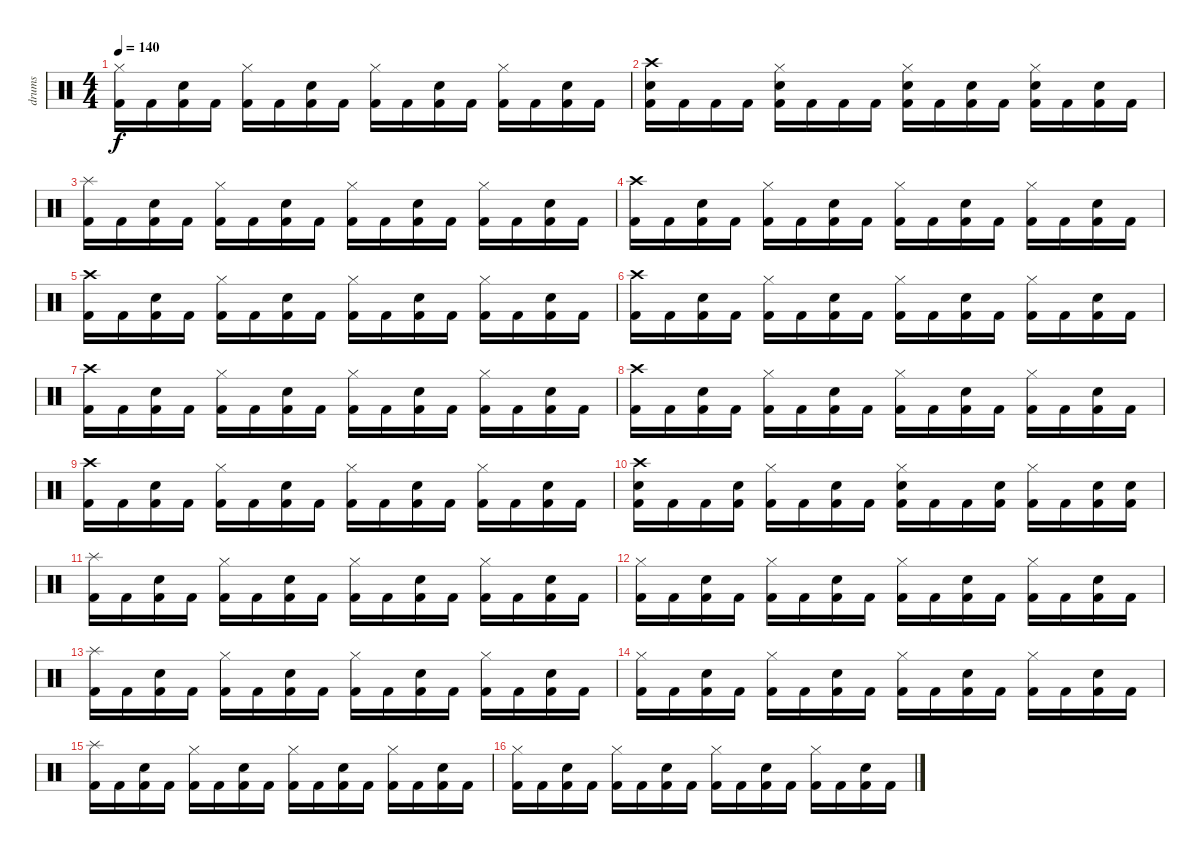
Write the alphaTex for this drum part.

\track ("drums" "drums") {instrument percussion}
\staff {score}
\articulation defaults
\ts (4 4)
\tempo 140
\clef neutral
\ks c
("Hi-Hat (closed)" "Kick (hit) 2").16{dy f} "Kick (hit) 2".16 ("Electric Snare (hit)" "Kick (hit) 2").16 "Kick (hit) 2".16 ("Hi-Hat (closed)" "Kick (hit) 2").16 "Kick (hit) 2".16 ("Electric Snare (hit)" "Kick (hit) 2").16 "Kick (hit) 2".16 ("Hi-Hat (closed)" "Kick (hit) 2").16 "Kick (hit) 2".16 ("Electric Snare (hit)" "Kick (hit) 2").16 "Kick (hit) 2".16 ("Hi-Hat (closed)" "Kick (hit) 2").16 "Kick (hit) 2".16 ("Electric Snare (hit)" "Kick (hit) 2").16 "Kick (hit) 2".16 |
("Crash high (hit)" "Electric Snare (hit)" "Kick (hit) 2").16 "Kick (hit) 2".16 "Kick (hit) 2".16 "Kick (hit) 2".16 ("Hi-Hat (closed)" "Electric Snare (hit)" "Kick (hit) 2").16 "Kick (hit) 2".16 "Kick (hit) 2".16 "Kick (hit) 2".16 ("Hi-Hat (closed)" "Electric Snare (hit)" "Kick (hit) 2").16 "Kick (hit) 2".16 ("Electric Snare (hit)" "Kick (hit) 2").16 "Kick (hit) 2".16 ("Hi-Hat (closed)" "Electric Snare (hit)" "Kick (hit) 2").16 "Kick (hit) 2".16 ("Electric Snare (hit)" "Kick (hit) 2").16 "Kick (hit) 2".16 |
("Splash (hit)" "Kick (hit) 2").16 "Kick (hit) 2".16 ("Electric Snare (hit)" "Kick (hit) 2").16 "Kick (hit) 2".16 ("Hi-Hat (closed)" "Kick (hit) 2").16 "Kick (hit) 2".16 ("Electric Snare (hit)" "Kick (hit) 2").16 "Kick (hit) 2".16 ("Hi-Hat (closed)" "Kick (hit) 2").16 "Kick (hit) 2".16 ("Electric Snare (hit)" "Kick (hit) 2").16 "Kick (hit) 2".16 ("Hi-Hat (closed)" "Kick (hit) 2").16 "Kick (hit) 2".16 ("Electric Snare (hit)" "Kick (hit) 2").16 "Kick (hit) 2".16 |
("Crash high (hit)" "Kick (hit) 2").16 "Kick (hit) 2".16 ("Electric Snare (hit)" "Kick (hit) 2").16 "Kick (hit) 2".16 ("Hi-Hat (closed)" "Kick (hit) 2").16 "Kick (hit) 2".16 ("Electric Snare (hit)" "Kick (hit) 2").16 "Kick (hit) 2".16 ("Hi-Hat (closed)" "Kick (hit) 2").16 "Kick (hit) 2".16 ("Electric Snare (hit)" "Kick (hit) 2").16 "Kick (hit) 2".16 ("Hi-Hat (closed)" "Kick (hit) 2").16 "Kick (hit) 2".16 ("Electric Snare (hit)" "Kick (hit) 2").16 "Kick (hit) 2".16 |
("Crash high (hit)" "Kick (hit) 2").16 "Kick (hit) 2".16 ("Electric Snare (hit)" "Kick (hit) 2").16 "Kick (hit) 2".16 ("Hi-Hat (closed)" "Kick (hit) 2").16 "Kick (hit) 2".16 ("Electric Snare (hit)" "Kick (hit) 2").16 "Kick (hit) 2".16 ("Hi-Hat (closed)" "Kick (hit) 2").16 "Kick (hit) 2".16 ("Electric Snare (hit)" "Kick (hit) 2").16 "Kick (hit) 2".16 ("Hi-Hat (closed)" "Kick (hit) 2").16 "Kick (hit) 2".16 ("Electric Snare (hit)" "Kick (hit) 2").16 "Kick (hit) 2".16 |
("Crash high (hit)" "Kick (hit) 2").16 "Kick (hit) 2".16 ("Electric Snare (hit)" "Kick (hit) 2").16 "Kick (hit) 2".16 ("Hi-Hat (closed)" "Kick (hit) 2").16 "Kick (hit) 2".16 ("Electric Snare (hit)" "Kick (hit) 2").16 "Kick (hit) 2".16 ("Hi-Hat (closed)" "Kick (hit) 2").16 "Kick (hit) 2".16 ("Electric Snare (hit)" "Kick (hit) 2").16 "Kick (hit) 2".16 ("Hi-Hat (closed)" "Kick (hit) 2").16 "Kick (hit) 2".16 ("Electric Snare (hit)" "Kick (hit) 2").16 "Kick (hit) 2".16 |
("Crash high (hit)" "Kick (hit) 2").16 "Kick (hit) 2".16 ("Electric Snare (hit)" "Kick (hit) 2").16 "Kick (hit) 2".16 ("Hi-Hat (closed)" "Kick (hit) 2").16 "Kick (hit) 2".16 ("Electric Snare (hit)" "Kick (hit) 2").16 "Kick (hit) 2".16 ("Hi-Hat (closed)" "Kick (hit) 2").16 "Kick (hit) 2".16 ("Electric Snare (hit)" "Kick (hit) 2").16 "Kick (hit) 2".16 ("Hi-Hat (closed)" "Kick (hit) 2").16 "Kick (hit) 2".16 ("Electric Snare (hit)" "Kick (hit) 2").16 "Kick (hit) 2".16 |
("Crash high (hit)" "Kick (hit) 2").16 "Kick (hit) 2".16 ("Electric Snare (hit)" "Kick (hit) 2").16 "Kick (hit) 2".16 ("Hi-Hat (closed)" "Kick (hit) 2").16 "Kick (hit) 2".16 ("Electric Snare (hit)" "Kick (hit) 2").16 "Kick (hit) 2".16 ("Hi-Hat (closed)" "Kick (hit) 2").16 "Kick (hit) 2".16 ("Electric Snare (hit)" "Kick (hit) 2").16 "Kick (hit) 2".16 ("Hi-Hat (closed)" "Kick (hit) 2").16 "Kick (hit) 2".16 ("Electric Snare (hit)" "Kick (hit) 2").16 "Kick (hit) 2".16 |
("Crash high (hit)" "Kick (hit) 2").16 "Kick (hit) 2".16 ("Electric Snare (hit)" "Kick (hit) 2").16 "Kick (hit) 2".16 ("Hi-Hat (closed)" "Kick (hit) 2").16 "Kick (hit) 2".16 ("Electric Snare (hit)" "Kick (hit) 2").16 "Kick (hit) 2".16 ("Hi-Hat (closed)" "Kick (hit) 2").16 "Kick (hit) 2".16 ("Electric Snare (hit)" "Kick (hit) 2").16 "Kick (hit) 2".16 ("Hi-Hat (closed)" "Kick (hit) 2").16 "Kick (hit) 2".16 ("Electric Snare (hit)" "Kick (hit) 2").16 "Kick (hit) 2".16 |
("Crash high (hit)" "Electric Snare (hit)" "Kick (hit) 2").16 "Kick (hit) 2".16 "Kick (hit) 2".16 ("Electric Snare (hit)" "Kick (hit) 2").16 ("Hi-Hat (closed)" "Kick (hit) 2").16 "Kick (hit) 2".16 ("Electric Snare (hit)" "Kick (hit) 2").16 "Kick (hit) 2".16 ("Hi-Hat (closed)" "Electric Snare (hit)" "Kick (hit) 2").16 "Kick (hit) 2".16 "Kick (hit) 2".16 ("Electric Snare (hit)" "Kick (hit) 2").16 ("Hi-Hat (closed)" "Kick (hit) 2").16 "Kick (hit) 2".16 ("Electric Snare (hit)" "Kick (hit) 2").16 ("Electric Snare (hit)" "Kick (hit) 2").16 |
("Splash (hit)" "Kick (hit) 2").16 "Kick (hit) 2".16 ("Electric Snare (hit)" "Kick (hit) 2").16 "Kick (hit) 2".16 ("Hi-Hat (closed)" "Kick (hit) 2").16 "Kick (hit) 2".16 ("Electric Snare (hit)" "Kick (hit) 2").16 "Kick (hit) 2".16 ("Hi-Hat (closed)" "Kick (hit) 2").16 "Kick (hit) 2".16 ("Electric Snare (hit)" "Kick (hit) 2").16 "Kick (hit) 2".16 ("Hi-Hat (closed)" "Kick (hit) 2").16 "Kick (hit) 2".16 ("Electric Snare (hit)" "Kick (hit) 2").16 "Kick (hit) 2".16 |
("Hi-Hat (closed)" "Kick (hit) 2").16 "Kick (hit) 2".16 ("Electric Snare (hit)" "Kick (hit) 2").16 "Kick (hit) 2".16 ("Hi-Hat (closed)" "Kick (hit) 2").16 "Kick (hit) 2".16 ("Electric Snare (hit)" "Kick (hit) 2").16 "Kick (hit) 2".16 ("Hi-Hat (closed)" "Kick (hit) 2").16 "Kick (hit) 2".16 ("Electric Snare (hit)" "Kick (hit) 2").16 "Kick (hit) 2".16 ("Hi-Hat (closed)" "Kick (hit) 2").16 "Kick (hit) 2".16 ("Electric Snare (hit)" "Kick (hit) 2").16 "Kick (hit) 2".16 |
("Splash (hit)" "Kick (hit) 2").16 "Kick (hit) 2".16 ("Electric Snare (hit)" "Kick (hit) 2").16 "Kick (hit) 2".16 ("Hi-Hat (closed)" "Kick (hit) 2").16 "Kick (hit) 2".16 ("Electric Snare (hit)" "Kick (hit) 2").16 "Kick (hit) 2".16 ("Hi-Hat (closed)" "Kick (hit) 2").16 "Kick (hit) 2".16 ("Electric Snare (hit)" "Kick (hit) 2").16 "Kick (hit) 2".16 ("Hi-Hat (closed)" "Kick (hit) 2").16 "Kick (hit) 2".16 ("Electric Snare (hit)" "Kick (hit) 2").16 "Kick (hit) 2".16 |
("Hi-Hat (closed)" "Kick (hit) 2").16 "Kick (hit) 2".16 ("Electric Snare (hit)" "Kick (hit) 2").16 "Kick (hit) 2".16 ("Hi-Hat (closed)" "Kick (hit) 2").16 "Kick (hit) 2".16 ("Electric Snare (hit)" "Kick (hit) 2").16 "Kick (hit) 2".16 ("Hi-Hat (closed)" "Kick (hit) 2").16 "Kick (hit) 2".16 ("Electric Snare (hit)" "Kick (hit) 2").16 "Kick (hit) 2".16 ("Hi-Hat (closed)" "Kick (hit) 2").16 "Kick (hit) 2".16 ("Electric Snare (hit)" "Kick (hit) 2").16 "Kick (hit) 2".16 |
("Splash (hit)" "Kick (hit) 2").16 "Kick (hit) 2".16 ("Electric Snare (hit)" "Kick (hit) 2").16 "Kick (hit) 2".16 ("Hi-Hat (closed)" "Kick (hit) 2").16 "Kick (hit) 2".16 ("Electric Snare (hit)" "Kick (hit) 2").16 "Kick (hit) 2".16 ("Hi-Hat (closed)" "Kick (hit) 2").16 "Kick (hit) 2".16 ("Electric Snare (hit)" "Kick (hit) 2").16 "Kick (hit) 2".16 ("Hi-Hat (closed)" "Kick (hit) 2").16 "Kick (hit) 2".16 ("Electric Snare (hit)" "Kick (hit) 2").16 "Kick (hit) 2".16 |
("Hi-Hat (closed)" "Kick (hit) 2").16 "Kick (hit) 2".16 ("Electric Snare (hit)" "Kick (hit) 2").16 "Kick (hit) 2".16 ("Hi-Hat (closed)" "Kick (hit) 2").16 "Kick (hit) 2".16 ("Electric Snare (hit)" "Kick (hit) 2").16 "Kick (hit) 2".16 ("Hi-Hat (closed)" "Kick (hit) 2").16 "Kick (hit) 2".16 ("Electric Snare (hit)" "Kick (hit) 2").16 "Kick (hit) 2".16 ("Hi-Hat (closed)" "Kick (hit) 2").16 "Kick (hit) 2".16 ("Electric Snare (hit)" "Kick (hit) 2").16 "Kick (hit) 2".16
